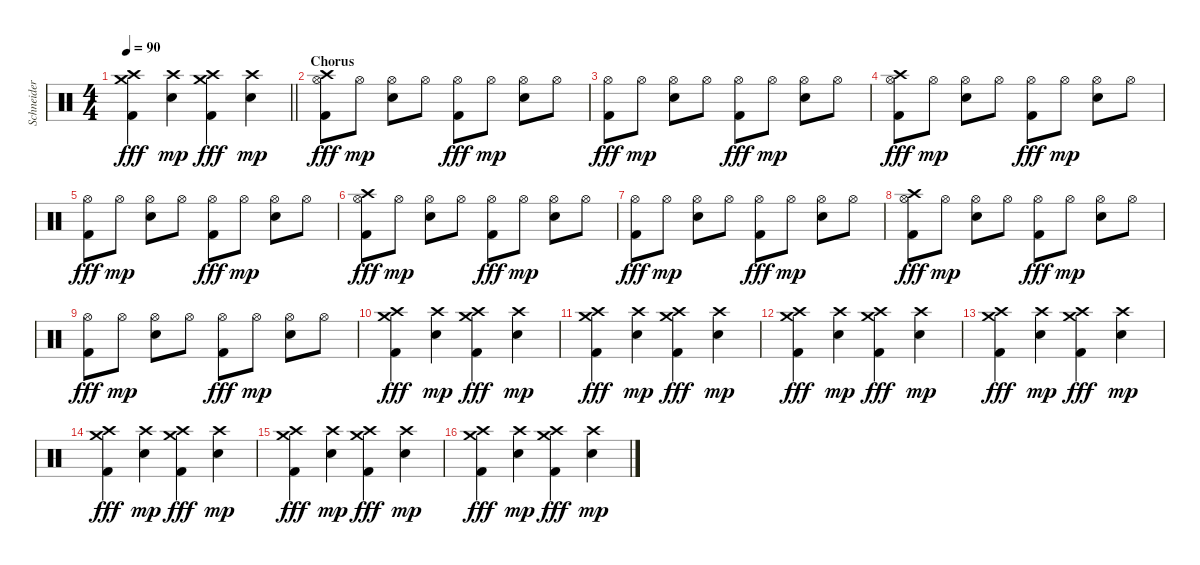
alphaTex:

\track ("Schneider" "Schneider") {instrument percussion}
\staff {score}
\articulation defaults
\ts (4 4)
\tempo 90
\clef neutral
\barLineRight lightlight
\ks c
("Crash high (hit)" "Crash medium (hit)" "Kick (hit) 2").4{dy fff} ("Crash high (hit)" "Electric Snare (hit)").4{dy mp} ("Crash high (hit)" "Crash medium (hit)" "Kick (hit) 2").4{dy fff} ("Crash high (hit)" "Electric Snare (hit)").4{dy mp} |
\section ("" "Chorus")
("Crash high (hit)" "Hi-Hat (open)" "Kick (hit) 2").8{dy fff} "Hi-Hat (open)".8{dy mp} ("Hi-Hat (open)" "Electric Snare (hit)").8 "Hi-Hat (open)".8 ("Hi-Hat (open)" "Kick (hit) 2").8{dy fff} "Hi-Hat (open)".8{dy mp} ("Hi-Hat (open)" "Electric Snare (hit)").8 "Hi-Hat (open)".8 |
("Hi-Hat (open)" "Kick (hit) 2").8{dy fff} "Hi-Hat (open)".8{dy mp} ("Hi-Hat (open)" "Electric Snare (hit)").8 "Hi-Hat (open)".8 ("Hi-Hat (open)" "Kick (hit) 2").8{dy fff} "Hi-Hat (open)".8{dy mp} ("Hi-Hat (open)" "Electric Snare (hit)").8 "Hi-Hat (open)".8 |
("Crash high (hit)" "Hi-Hat (open)" "Kick (hit) 2").8{dy fff} "Hi-Hat (open)".8{dy mp} ("Hi-Hat (open)" "Electric Snare (hit)").8 "Hi-Hat (open)".8 ("Hi-Hat (open)" "Kick (hit) 2").8{dy fff} "Hi-Hat (open)".8{dy mp} ("Hi-Hat (open)" "Electric Snare (hit)").8 "Hi-Hat (open)".8 |
("Hi-Hat (open)" "Kick (hit) 2").8{dy fff} "Hi-Hat (open)".8{dy mp} ("Hi-Hat (open)" "Electric Snare (hit)").8 "Hi-Hat (open)".8 ("Hi-Hat (open)" "Kick (hit) 2").8{dy fff} "Hi-Hat (open)".8{dy mp} ("Hi-Hat (open)" "Electric Snare (hit)").8 "Hi-Hat (open)".8 |
("Crash high (hit)" "Hi-Hat (open)" "Kick (hit) 2").8{dy fff} "Hi-Hat (open)".8{dy mp} ("Hi-Hat (open)" "Electric Snare (hit)").8 "Hi-Hat (open)".8 ("Hi-Hat (open)" "Kick (hit) 2").8{dy fff} "Hi-Hat (open)".8{dy mp} ("Hi-Hat (open)" "Electric Snare (hit)").8 "Hi-Hat (open)".8 |
("Hi-Hat (open)" "Kick (hit) 2").8{dy fff} "Hi-Hat (open)".8{dy mp} ("Hi-Hat (open)" "Electric Snare (hit)").8 "Hi-Hat (open)".8 ("Hi-Hat (open)" "Kick (hit) 2").8{dy fff} "Hi-Hat (open)".8{dy mp} ("Hi-Hat (open)" "Electric Snare (hit)").8 "Hi-Hat (open)".8 |
("Crash high (hit)" "Hi-Hat (open)" "Kick (hit) 2").8{dy fff} "Hi-Hat (open)".8{dy mp} ("Hi-Hat (open)" "Electric Snare (hit)").8 "Hi-Hat (open)".8 ("Hi-Hat (open)" "Kick (hit) 2").8{dy fff} "Hi-Hat (open)".8{dy mp} ("Hi-Hat (open)" "Electric Snare (hit)").8 "Hi-Hat (open)".8 |
("Hi-Hat (open)" "Kick (hit) 2").8{dy fff} "Hi-Hat (open)".8{dy mp} ("Hi-Hat (open)" "Electric Snare (hit)").8 "Hi-Hat (open)".8 ("Hi-Hat (open)" "Kick (hit) 2").8{dy fff} "Hi-Hat (open)".8{dy mp} ("Hi-Hat (open)" "Electric Snare (hit)").8 "Hi-Hat (open)".8 |
("Crash high (hit)" "Crash medium (hit)" "Kick (hit) 2").4{dy fff} ("Crash high (hit)" "Electric Snare (hit)").4{dy mp} ("Crash high (hit)" "Crash medium (hit)" "Kick (hit) 2").4{dy fff} ("Crash high (hit)" "Electric Snare (hit)").4{dy mp} |
("Crash high (hit)" "Crash medium (hit)" "Kick (hit) 2").4{dy fff} ("Crash high (hit)" "Electric Snare (hit)").4{dy mp} ("Crash high (hit)" "Crash medium (hit)" "Kick (hit) 2").4{dy fff} ("Crash high (hit)" "Electric Snare (hit)").4{dy mp} |
("Crash high (hit)" "Crash medium (hit)" "Kick (hit) 2").4{dy fff} ("Crash high (hit)" "Electric Snare (hit)").4{dy mp} ("Crash high (hit)" "Crash medium (hit)" "Kick (hit) 2").4{dy fff} ("Crash high (hit)" "Electric Snare (hit)").4{dy mp} |
("Crash high (hit)" "Crash medium (hit)" "Kick (hit) 2").4{dy fff} ("Crash high (hit)" "Electric Snare (hit)").4{dy mp} ("Crash high (hit)" "Crash medium (hit)" "Kick (hit) 2").4{dy fff} ("Crash high (hit)" "Electric Snare (hit)").4{dy mp} |
("Crash high (hit)" "Crash medium (hit)" "Kick (hit) 2").4{dy fff} ("Crash high (hit)" "Electric Snare (hit)").4{dy mp} ("Crash high (hit)" "Crash medium (hit)" "Kick (hit) 2").4{dy fff} ("Crash high (hit)" "Electric Snare (hit)").4{dy mp} |
("Crash high (hit)" "Crash medium (hit)" "Kick (hit) 2").4{dy fff} ("Crash high (hit)" "Electric Snare (hit)").4{dy mp} ("Crash high (hit)" "Crash medium (hit)" "Kick (hit) 2").4{dy fff} ("Crash high (hit)" "Electric Snare (hit)").4{dy mp} |
("Crash high (hit)" "Crash medium (hit)" "Kick (hit) 2").4{dy fff} ("Crash high (hit)" "Electric Snare (hit)").4{dy mp} ("Crash high (hit)" "Crash medium (hit)" "Kick (hit) 2").4{dy fff} ("Crash high (hit)" "Electric Snare (hit)").4{dy mp}
